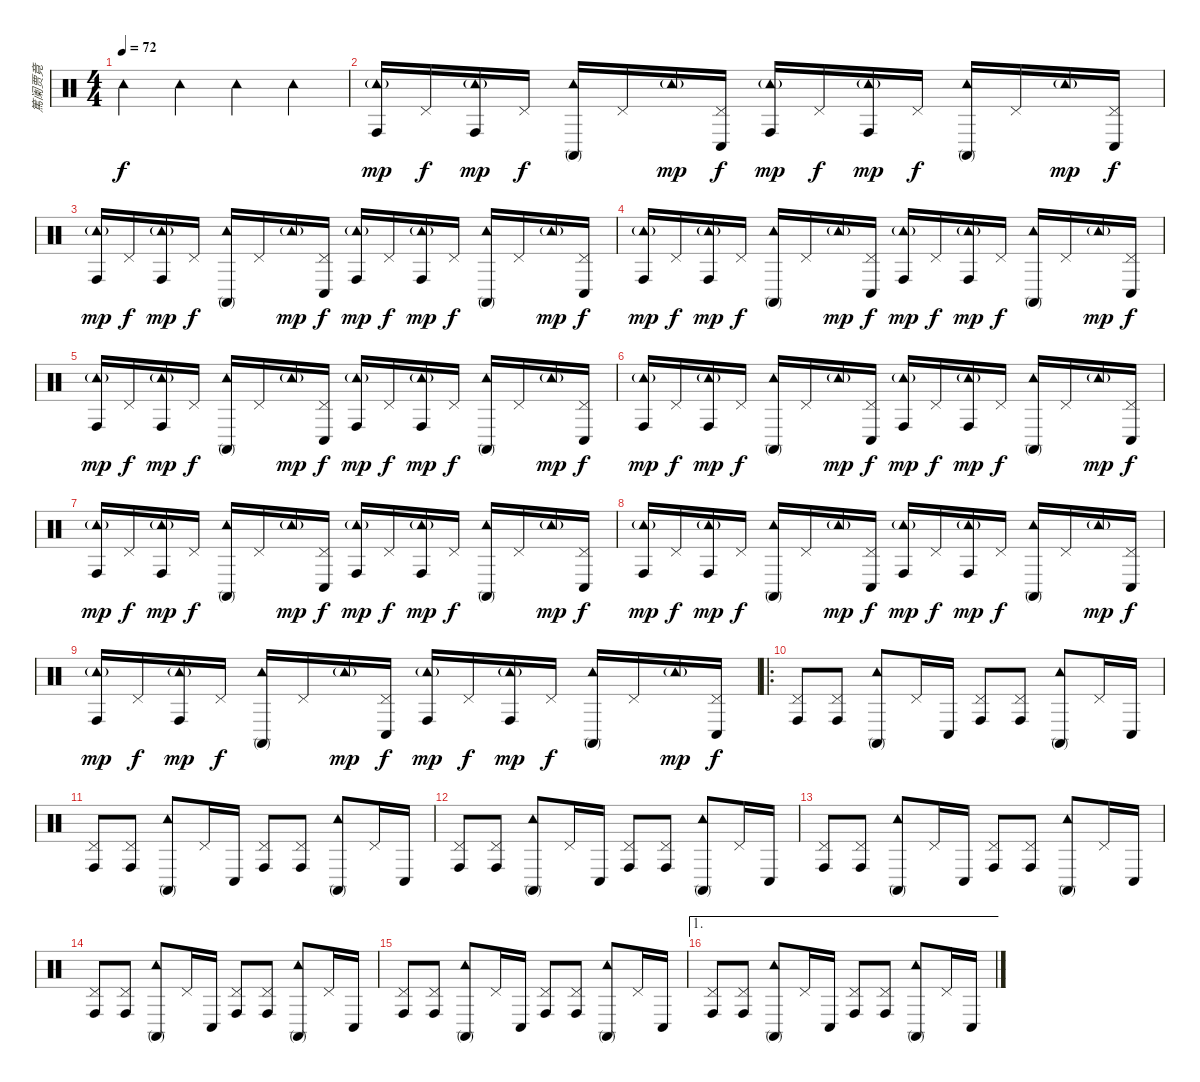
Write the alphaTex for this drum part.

\track ("篤阑贾竟" "篤阑贾竟") {instrument percussion}
\staff {score}
\articulation defaults
\ts (4 4)
\tempo 72
\clef neutral
\ks c "Tambourine (hit)".4{dy f} "Tambourine (hit)".4 "Tambourine (hit)".4 "Tambourine (hit)".4
|
("Tambourine (hit)"{g} "Conga high (hit)").16{dy mp} "Pedal Hi-Hat (hit)".16{dy f} ("Tambourine (hit)"{g} "Conga high (hit)").16{dy mp} "Pedal Hi-Hat (hit)".16{dy f} ("Tambourine (hit)" "Conga high (mute)").16 "Pedal Hi-Hat (hit)".16 "Tambourine (hit)"{g}.16{dy mp} ("Pedal Hi-Hat (hit)" "Conga low (hit)").16{dy f} ("Tambourine (hit)"{g} "Conga high (hit)").16{dy mp} "Pedal Hi-Hat (hit)".16{dy f} ("Tambourine (hit)"{g} "Conga high (hit)").16{dy mp} "Pedal Hi-Hat (hit)".16{dy f} ("Tambourine (hit)" "Conga high (mute)").16 "Pedal Hi-Hat (hit)".16 "Tambourine (hit)"{g}.16{dy mp} ("Pedal Hi-Hat (hit)" "Conga low (hit)").16{dy f} |
("Tambourine (hit)"{g} "Conga high (hit)").16{dy mp} "Pedal Hi-Hat (hit)".16{dy f} ("Tambourine (hit)"{g} "Conga high (hit)").16{dy mp} "Pedal Hi-Hat (hit)".16{dy f} ("Tambourine (hit)" "Conga high (mute)").16 "Pedal Hi-Hat (hit)".16 "Tambourine (hit)"{g}.16{dy mp} ("Pedal Hi-Hat (hit)" "Conga low (hit)").16{dy f} ("Tambourine (hit)"{g} "Conga high (hit)").16{dy mp} "Pedal Hi-Hat (hit)".16{dy f} ("Tambourine (hit)"{g} "Conga high (hit)").16{dy mp} "Pedal Hi-Hat (hit)".16{dy f} ("Tambourine (hit)" "Conga high (mute)").16 "Pedal Hi-Hat (hit)".16 "Tambourine (hit)"{g}.16{dy mp} ("Pedal Hi-Hat (hit)" "Conga low (hit)").16{dy f} |
("Tambourine (hit)"{g} "Conga high (hit)").16{dy mp} "Pedal Hi-Hat (hit)".16{dy f} ("Tambourine (hit)"{g} "Conga high (hit)").16{dy mp} "Pedal Hi-Hat (hit)".16{dy f} ("Tambourine (hit)" "Conga high (mute)").16 "Pedal Hi-Hat (hit)".16 "Tambourine (hit)"{g}.16{dy mp} ("Pedal Hi-Hat (hit)" "Conga low (hit)").16{dy f} ("Tambourine (hit)"{g} "Conga high (hit)").16{dy mp} "Pedal Hi-Hat (hit)".16{dy f} ("Tambourine (hit)"{g} "Conga high (hit)").16{dy mp} "Pedal Hi-Hat (hit)".16{dy f} ("Tambourine (hit)" "Conga high (mute)").16 "Pedal Hi-Hat (hit)".16 "Tambourine (hit)"{g}.16{dy mp} ("Pedal Hi-Hat (hit)" "Conga low (hit)").16{dy f} |
("Tambourine (hit)"{g} "Conga high (hit)").16{dy mp} "Pedal Hi-Hat (hit)".16{dy f} ("Tambourine (hit)"{g} "Conga high (hit)").16{dy mp} "Pedal Hi-Hat (hit)".16{dy f} ("Tambourine (hit)" "Conga high (mute)").16 "Pedal Hi-Hat (hit)".16 "Tambourine (hit)"{g}.16{dy mp} ("Pedal Hi-Hat (hit)" "Conga low (hit)").16{dy f} ("Tambourine (hit)"{g} "Conga high (hit)").16{dy mp} "Pedal Hi-Hat (hit)".16{dy f} ("Tambourine (hit)"{g} "Conga high (hit)").16{dy mp} "Pedal Hi-Hat (hit)".16{dy f} ("Tambourine (hit)" "Conga high (mute)").16 "Pedal Hi-Hat (hit)".16 "Tambourine (hit)"{g}.16{dy mp} ("Pedal Hi-Hat (hit)" "Conga low (hit)").16{dy f} |
("Tambourine (hit)"{g} "Conga high (hit)").16{dy mp} "Pedal Hi-Hat (hit)".16{dy f} ("Tambourine (hit)"{g} "Conga high (hit)").16{dy mp} "Pedal Hi-Hat (hit)".16{dy f} ("Tambourine (hit)" "Conga high (mute)").16 "Pedal Hi-Hat (hit)".16 "Tambourine (hit)"{g}.16{dy mp} ("Pedal Hi-Hat (hit)" "Conga low (hit)").16{dy f} ("Tambourine (hit)"{g} "Conga high (hit)").16{dy mp} "Pedal Hi-Hat (hit)".16{dy f} ("Tambourine (hit)"{g} "Conga high (hit)").16{dy mp} "Pedal Hi-Hat (hit)".16{dy f} ("Tambourine (hit)" "Conga high (mute)").16 "Pedal Hi-Hat (hit)".16 "Tambourine (hit)"{g}.16{dy mp} ("Pedal Hi-Hat (hit)" "Conga low (hit)").16{dy f} |
("Tambourine (hit)"{g} "Conga high (hit)").16{dy mp} "Pedal Hi-Hat (hit)".16{dy f} ("Tambourine (hit)"{g} "Conga high (hit)").16{dy mp} "Pedal Hi-Hat (hit)".16{dy f} ("Tambourine (hit)" "Conga high (mute)").16 "Pedal Hi-Hat (hit)".16 "Tambourine (hit)"{g}.16{dy mp} ("Pedal Hi-Hat (hit)" "Conga low (hit)").16{dy f} ("Tambourine (hit)"{g} "Conga high (hit)").16{dy mp} "Pedal Hi-Hat (hit)".16{dy f} ("Tambourine (hit)"{g} "Conga high (hit)").16{dy mp} "Pedal Hi-Hat (hit)".16{dy f} ("Tambourine (hit)" "Conga high (mute)").16 "Pedal Hi-Hat (hit)".16 "Tambourine (hit)"{g}.16{dy mp} ("Pedal Hi-Hat (hit)" "Conga low (hit)").16{dy f} |
("Tambourine (hit)"{g} "Conga high (hit)").16{dy mp} "Pedal Hi-Hat (hit)".16{dy f} ("Tambourine (hit)"{g} "Conga high (hit)").16{dy mp} "Pedal Hi-Hat (hit)".16{dy f} ("Tambourine (hit)" "Conga high (mute)").16 "Pedal Hi-Hat (hit)".16 "Tambourine (hit)"{g}.16{dy mp} ("Pedal Hi-Hat (hit)" "Conga low (hit)").16{dy f} ("Tambourine (hit)"{g} "Conga high (hit)").16{dy mp} "Pedal Hi-Hat (hit)".16{dy f} ("Tambourine (hit)"{g} "Conga high (hit)").16{dy mp} "Pedal Hi-Hat (hit)".16{dy f} ("Tambourine (hit)" "Conga high (mute)").16 "Pedal Hi-Hat (hit)".16 "Tambourine (hit)"{g}.16{dy mp} ("Pedal Hi-Hat (hit)" "Conga low (hit)").16{dy f} |
("Tambourine (hit)"{g} "Conga high (hit)").16{dy mp} "Pedal Hi-Hat (hit)".16{dy f} ("Tambourine (hit)"{g} "Conga high (hit)").16{dy mp} "Pedal Hi-Hat (hit)".16{dy f} ("Tambourine (hit)" "Conga high (mute)").16 "Pedal Hi-Hat (hit)".16 "Tambourine (hit)"{g}.16{dy mp} ("Pedal Hi-Hat (hit)" "Conga low (hit)").16{dy f} ("Tambourine (hit)"{g} "Conga high (hit)").16{dy mp} "Pedal Hi-Hat (hit)".16{dy f} ("Tambourine (hit)"{g} "Conga high (hit)").16{dy mp} "Pedal Hi-Hat (hit)".16{dy f} ("Tambourine (hit)" "Conga high (mute)").16 "Pedal Hi-Hat (hit)".16 "Tambourine (hit)"{g}.16{dy mp} ("Pedal Hi-Hat (hit)" "Conga low (hit)").16{dy f} |
\ro
("Pedal Hi-Hat (hit)" "Conga high (hit)").8 ("Pedal Hi-Hat (hit)" "Conga high (hit)").8 ("Tambourine (hit)" "Conga high (mute)").8 "Pedal Hi-Hat (hit)".16 "Conga low (hit)".16 ("Pedal Hi-Hat (hit)" "Conga high (hit)").8 ("Pedal Hi-Hat (hit)" "Conga high (hit)").8 ("Tambourine (hit)" "Conga high (mute)").8 "Pedal Hi-Hat (hit)".16 "Conga low (hit)".16 |
("Pedal Hi-Hat (hit)" "Conga high (hit)").8 ("Pedal Hi-Hat (hit)" "Conga high (hit)").8 ("Tambourine (hit)" "Conga high (mute)").8 "Pedal Hi-Hat (hit)".16 "Conga low (hit)".16 ("Pedal Hi-Hat (hit)" "Conga high (hit)").8 ("Pedal Hi-Hat (hit)" "Conga high (hit)").8 ("Tambourine (hit)" "Conga high (mute)").8 "Pedal Hi-Hat (hit)".16 "Conga low (hit)".16 |
("Pedal Hi-Hat (hit)" "Conga high (hit)").8 ("Pedal Hi-Hat (hit)" "Conga high (hit)").8 ("Tambourine (hit)" "Conga high (mute)").8 "Pedal Hi-Hat (hit)".16 "Conga low (hit)".16 ("Pedal Hi-Hat (hit)" "Conga high (hit)").8 ("Pedal Hi-Hat (hit)" "Conga high (hit)").8 ("Tambourine (hit)" "Conga high (mute)").8 "Pedal Hi-Hat (hit)".16 "Conga low (hit)".16 |
("Pedal Hi-Hat (hit)" "Conga high (hit)").8 ("Pedal Hi-Hat (hit)" "Conga high (hit)").8 ("Tambourine (hit)" "Conga high (mute)").8 "Pedal Hi-Hat (hit)".16 "Conga low (hit)".16 ("Pedal Hi-Hat (hit)" "Conga high (hit)").8 ("Pedal Hi-Hat (hit)" "Conga high (hit)").8 ("Tambourine (hit)" "Conga high (mute)").8 "Pedal Hi-Hat (hit)".16 "Conga low (hit)".16 |
("Pedal Hi-Hat (hit)" "Conga high (hit)").8 ("Pedal Hi-Hat (hit)" "Conga high (hit)").8 ("Tambourine (hit)" "Conga high (mute)").8 "Pedal Hi-Hat (hit)".16 "Conga low (hit)".16 ("Pedal Hi-Hat (hit)" "Conga high (hit)").8 ("Pedal Hi-Hat (hit)" "Conga high (hit)").8 ("Tambourine (hit)" "Conga high (mute)").8 "Pedal Hi-Hat (hit)".16 "Conga low (hit)".16 |
("Pedal Hi-Hat (hit)" "Conga high (hit)").8 ("Pedal Hi-Hat (hit)" "Conga high (hit)").8 ("Tambourine (hit)" "Conga high (mute)").8 "Pedal Hi-Hat (hit)".16 "Conga low (hit)".16 ("Pedal Hi-Hat (hit)" "Conga high (hit)").8 ("Pedal Hi-Hat (hit)" "Conga high (hit)").8 ("Tambourine (hit)" "Conga high (mute)").8 "Pedal Hi-Hat (hit)".16 "Conga low (hit)".16 |
\ae 1
("Pedal Hi-Hat (hit)" "Conga high (hit)").8 ("Pedal Hi-Hat (hit)" "Conga high (hit)").8 ("Tambourine (hit)" "Conga high (mute)").8 "Pedal Hi-Hat (hit)".16 "Conga low (hit)".16 ("Pedal Hi-Hat (hit)" "Conga high (hit)").8 ("Pedal Hi-Hat (hit)" "Conga high (hit)").8 ("Tambourine (hit)" "Conga high (mute)").8 "Pedal Hi-Hat (hit)".16 "Conga low (hit)".16
